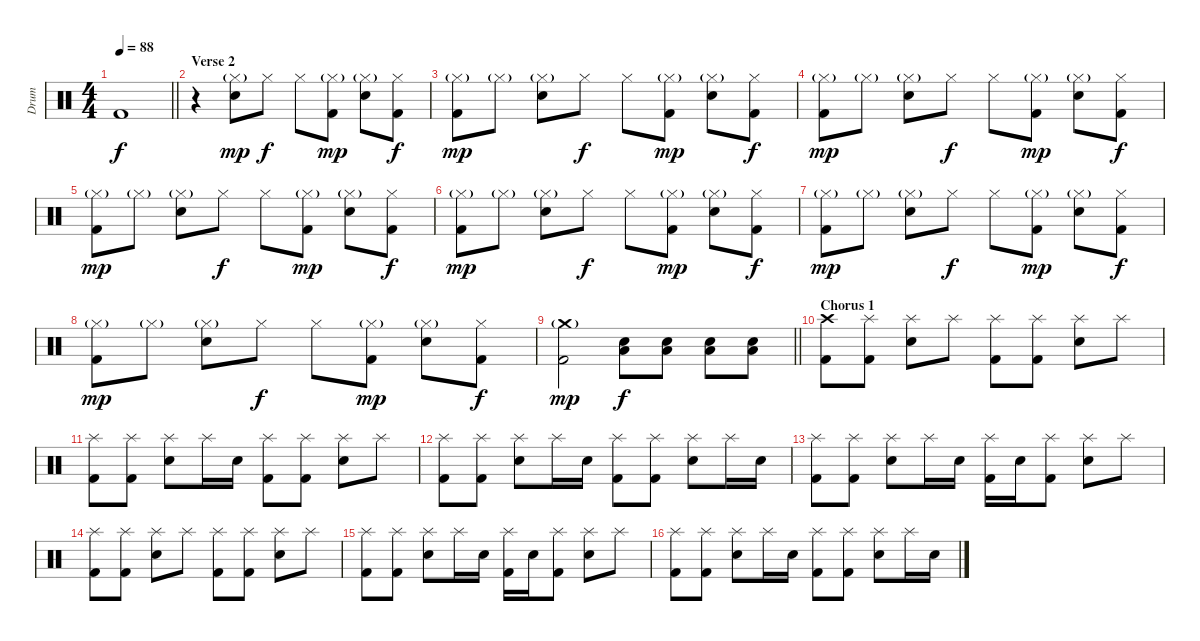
\track ("Drum" "Drum") {instrument percussion}
\staff {score}
\articulation defaults
\ts (4 4)
\tempo 88
\clef neutral
\barLineRight lightlight
\ks c "Kick (hit) 2".1{dy f}
|
\section ("" "Verse 2")
r.4 ("Hi-Hat (closed)"{g} "Electric Snare (hit)").8{dy mp} "Hi-Hat (closed)".8{dy f} "Hi-Hat (closed)".8 ("Hi-Hat (closed)"{g} "Kick (hit) 2").8{dy mp} ("Hi-Hat (closed)"{g} "Electric Snare (hit)").8 ("Hi-Hat (closed)" "Kick (hit) 2").8{dy f} |
("Hi-Hat (closed)"{g} "Kick (hit) 2").8{dy mp} "Hi-Hat (closed)"{g}.8 ("Hi-Hat (closed)"{g} "Electric Snare (hit)").8 "Hi-Hat (closed)".8{dy f} "Hi-Hat (closed)".8 ("Hi-Hat (closed)"{g} "Kick (hit) 2").8{dy mp} ("Hi-Hat (closed)"{g} "Electric Snare (hit)").8 ("Hi-Hat (closed)" "Kick (hit) 2").8{dy f} |
("Hi-Hat (closed)"{g} "Kick (hit) 2").8{dy mp} "Hi-Hat (closed)"{g}.8 ("Hi-Hat (closed)"{g} "Electric Snare (hit)").8 "Hi-Hat (closed)".8{dy f} "Hi-Hat (closed)".8 ("Hi-Hat (closed)"{g} "Kick (hit) 2").8{dy mp} ("Hi-Hat (closed)"{g} "Electric Snare (hit)").8 ("Hi-Hat (closed)" "Kick (hit) 2").8{dy f} |
("Hi-Hat (closed)"{g} "Kick (hit) 2").8{dy mp} "Hi-Hat (closed)"{g}.8 ("Hi-Hat (closed)"{g} "Electric Snare (hit)").8 "Hi-Hat (closed)".8{dy f} "Hi-Hat (closed)".8 ("Hi-Hat (closed)"{g} "Kick (hit) 2").8{dy mp} ("Hi-Hat (closed)"{g} "Electric Snare (hit)").8 ("Hi-Hat (closed)" "Kick (hit) 2").8{dy f} |
("Hi-Hat (closed)"{g} "Kick (hit) 2").8{dy mp} "Hi-Hat (closed)"{g}.8 ("Hi-Hat (closed)"{g} "Electric Snare (hit)").8 "Hi-Hat (closed)".8{dy f} "Hi-Hat (closed)".8 ("Hi-Hat (closed)"{g} "Kick (hit) 2").8{dy mp} ("Hi-Hat (closed)"{g} "Electric Snare (hit)").8 ("Hi-Hat (closed)" "Kick (hit) 2").8{dy f} |
("Hi-Hat (closed)"{g} "Kick (hit) 2").8{dy mp} "Hi-Hat (closed)"{g}.8 ("Hi-Hat (closed)"{g} "Electric Snare (hit)").8 "Hi-Hat (closed)".8{dy f} "Hi-Hat (closed)".8 ("Hi-Hat (closed)"{g} "Kick (hit) 2").8{dy mp} ("Hi-Hat (closed)"{g} "Electric Snare (hit)").8 ("Hi-Hat (closed)" "Kick (hit) 2").8{dy f} |
("Hi-Hat (closed)"{g} "Kick (hit) 2").8{dy mp} "Hi-Hat (closed)"{g}.8 ("Hi-Hat (closed)"{g} "Electric Snare (hit)").8 "Hi-Hat (closed)".8{dy f} "Hi-Hat (closed)".8 ("Hi-Hat (closed)"{g} "Kick (hit) 2").8{dy mp} ("Hi-Hat (closed)"{g} "Electric Snare (hit)").8 ("Hi-Hat (closed)" "Kick (hit) 2").8{dy f} |
\barLineRight lightlight
("Crash medium (hit)"{g} "Kick (hit) 2").2{dy mp} ("Electric Snare (hit)" "Low Floor Tom (hit)").8{dy f} ("Electric Snare (hit)" "Low Floor Tom (hit)").8 ("Electric Snare (hit)" "Low Floor Tom (hit)").8 ("Electric Snare (hit)" "Low Floor Tom (hit)").8 |
\section ("" "Chorus 1")
("Crash high (hit)" "Kick (hit) 2").8 ("Splash (hit)" "Kick (hit) 2").8 ("Splash (hit)" "Electric Snare (hit)").8 "Splash (hit)".8 ("Splash (hit)" "Kick (hit) 2").8 ("Splash (hit)" "Kick (hit) 2").8 ("Splash (hit)" "Electric Snare (hit)").8 "Splash (hit)".8 |
("Splash (hit)" "Kick (hit) 2").8 ("Splash (hit)" "Kick (hit) 2").8 ("Splash (hit)" "Electric Snare (hit)").8 "Splash (hit)".16 "Electric Snare (hit)".16 ("Splash (hit)" "Kick (hit) 2").8 ("Splash (hit)" "Kick (hit) 2").8 ("Splash (hit)" "Electric Snare (hit)").8 "Splash (hit)".8 |
("Splash (hit)" "Kick (hit) 2").8 ("Splash (hit)" "Kick (hit) 2").8 ("Splash (hit)" "Electric Snare (hit)").8 "Splash (hit)".16 "Electric Snare (hit)".16 ("Splash (hit)" "Kick (hit) 2").8 ("Splash (hit)" "Kick (hit) 2").8 ("Splash (hit)" "Electric Snare (hit)").8 "Splash (hit)".16 "Electric Snare (hit)".16 |
("Splash (hit)" "Kick (hit) 2").8 ("Splash (hit)" "Kick (hit) 2").8 ("Splash (hit)" "Electric Snare (hit)").8 "Splash (hit)".16 "Electric Snare (hit)".16 ("Splash (hit)" "Kick (hit) 2").16 "Electric Snare (hit)".16 ("Splash (hit)" "Kick (hit) 2").8 ("Splash (hit)" "Electric Snare (hit)").8 "Splash (hit)".8 |
("Splash (hit)" "Kick (hit) 2").8 ("Splash (hit)" "Kick (hit) 2").8 ("Splash (hit)" "Electric Snare (hit)").8 "Splash (hit)".8 ("Splash (hit)" "Kick (hit) 2").8 ("Splash (hit)" "Kick (hit) 2").8 ("Splash (hit)" "Electric Snare (hit)").8 "Splash (hit)".8 |
("Splash (hit)" "Kick (hit) 2").8 ("Splash (hit)" "Kick (hit) 2").8 ("Splash (hit)" "Electric Snare (hit)").8 "Splash (hit)".16 "Electric Snare (hit)".16 ("Splash (hit)" "Kick (hit) 2").16 "Electric Snare (hit)".16 ("Splash (hit)" "Kick (hit) 2").8 ("Splash (hit)" "Electric Snare (hit)").8 "Splash (hit)".8 |
("Splash (hit)" "Kick (hit) 2").8 ("Splash (hit)" "Kick (hit) 2").8 ("Splash (hit)" "Electric Snare (hit)").8 "Splash (hit)".16 "Electric Snare (hit)".16 ("Splash (hit)" "Kick (hit) 2").8 ("Splash (hit)" "Kick (hit) 2").8 ("Splash (hit)" "Electric Snare (hit)").8 "Splash (hit)".16 "Electric Snare (hit)".16
